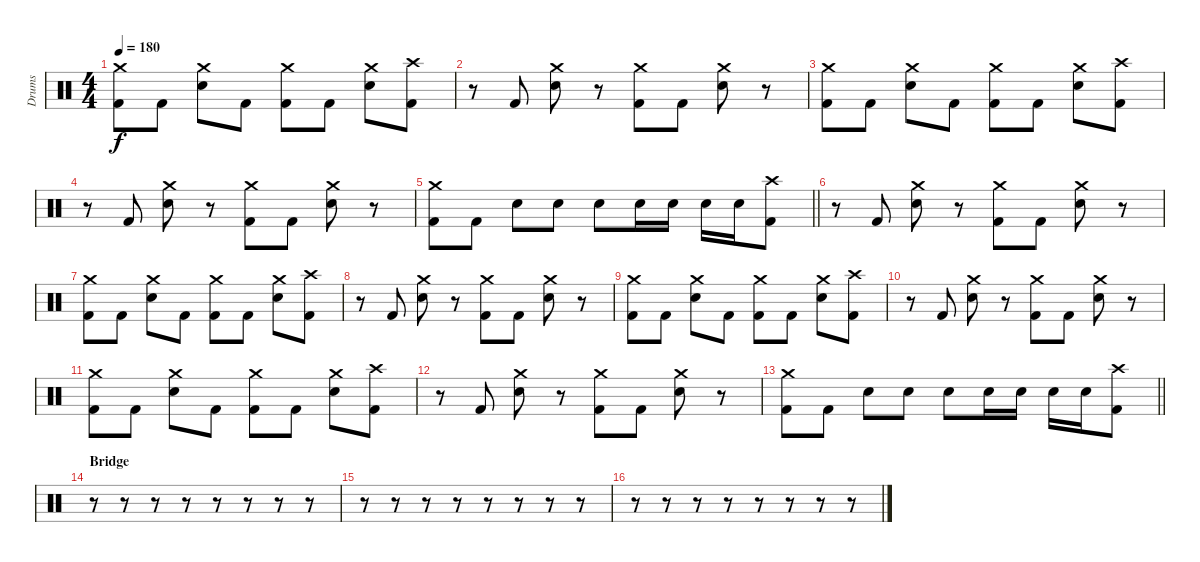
\track ("Drums" "Drums") {instrument percussion}
\staff {score}
\articulation defaults
\ts (4 4)
\tempo 180
\clef neutral
\ks c
("Crash medium (hit)" "Kick (hit) 2").8{dy f} "Kick (hit) 2".8 ("Crash medium (hit)" "Snare (hit) 2").8 "Kick (hit) 2".8 ("Crash medium (hit)" "Kick (hit) 2").8 "Kick (hit) 2".8 ("Crash medium (hit)" "Snare (hit) 2").8 ("Crash high (hit)" "Kick (hit) 2").8 |
r.8 "Kick (hit) 2".8 ("Crash medium (hit)" "Snare (hit) 2").8 r.8 ("Crash medium (hit)" "Kick (hit) 2").8 "Kick (hit) 2".8 ("Crash medium (hit)" "Snare (hit) 2").8 r.8 |
("Crash medium (hit)" "Kick (hit) 2").8 "Kick (hit) 2".8 ("Crash medium (hit)" "Snare (hit) 2").8 "Kick (hit) 2".8 ("Crash medium (hit)" "Kick (hit) 2").8 "Kick (hit) 2".8 ("Crash medium (hit)" "Snare (hit) 2").8 ("Crash high (hit)" "Kick (hit) 2").8 |
r.8 "Kick (hit) 2".8 ("Crash medium (hit)" "Snare (hit) 2").8 r.8 ("Crash medium (hit)" "Kick (hit) 2").8 "Kick (hit) 2".8 ("Crash medium (hit)" "Snare (hit) 2").8 r.8 |
\barLineRight lightlight
("Crash medium (hit)" "Kick (hit) 2").8 "Kick (hit) 2".8 "Snare (hit) 2".8 "Snare (hit) 2".8 "Snare (hit) 2".8 "Snare (hit) 2".16 "Snare (hit) 2".16 "Snare (hit) 2".16 "Snare (hit) 2".16 ("Crash high (hit)" "Kick (hit) 2").8 |
r.8 "Kick (hit) 2".8 ("Crash medium (hit)" "Snare (hit) 2").8 r.8 ("Crash medium (hit)" "Kick (hit) 2").8 "Kick (hit) 2".8 ("Crash medium (hit)" "Snare (hit) 2").8 r.8 |
("Crash medium (hit)" "Kick (hit) 2").8 "Kick (hit) 2".8 ("Crash medium (hit)" "Snare (hit) 2").8 "Kick (hit) 2".8 ("Crash medium (hit)" "Kick (hit) 2").8 "Kick (hit) 2".8 ("Crash medium (hit)" "Snare (hit) 2").8 ("Crash high (hit)" "Kick (hit) 2").8 |
r.8 "Kick (hit) 2".8 ("Crash medium (hit)" "Snare (hit) 2").8 r.8 ("Crash medium (hit)" "Kick (hit) 2").8 "Kick (hit) 2".8 ("Crash medium (hit)" "Snare (hit) 2").8 r.8 |
("Crash medium (hit)" "Kick (hit) 2").8 "Kick (hit) 2".8 ("Crash medium (hit)" "Snare (hit) 2").8 "Kick (hit) 2".8 ("Crash medium (hit)" "Kick (hit) 2").8 "Kick (hit) 2".8 ("Crash medium (hit)" "Snare (hit) 2").8 ("Crash high (hit)" "Kick (hit) 2").8 |
r.8 "Kick (hit) 2".8 ("Crash medium (hit)" "Snare (hit) 2").8 r.8 ("Crash medium (hit)" "Kick (hit) 2").8 "Kick (hit) 2".8 ("Crash medium (hit)" "Snare (hit) 2").8 r.8 |
("Crash medium (hit)" "Kick (hit) 2").8 "Kick (hit) 2".8 ("Crash medium (hit)" "Snare (hit) 2").8 "Kick (hit) 2".8 ("Crash medium (hit)" "Kick (hit) 2").8 "Kick (hit) 2".8 ("Crash medium (hit)" "Snare (hit) 2").8 ("Crash high (hit)" "Kick (hit) 2").8 |
r.8 "Kick (hit) 2".8 ("Crash medium (hit)" "Snare (hit) 2").8 r.8 ("Crash medium (hit)" "Kick (hit) 2").8 "Kick (hit) 2".8 ("Crash medium (hit)" "Snare (hit) 2").8 r.8 |
\barLineRight lightlight
("Crash medium (hit)" "Kick (hit) 2").8 "Kick (hit) 2".8 "Snare (hit) 2".8 "Snare (hit) 2".8 "Snare (hit) 2".8 "Snare (hit) 2".16 "Snare (hit) 2".16 "Snare (hit) 2".16 "Snare (hit) 2".16 ("Crash high (hit)" "Kick (hit) 2").8 |
\section ("" "Bridge")
r.8 r.8 r.8 r.8 r.8 r.8 r.8 r.8 |
r.8 r.8 r.8 r.8 r.8 r.8 r.8 r.8 |
r.8 r.8 r.8 r.8 r.8 r.8 r.8 r.8
